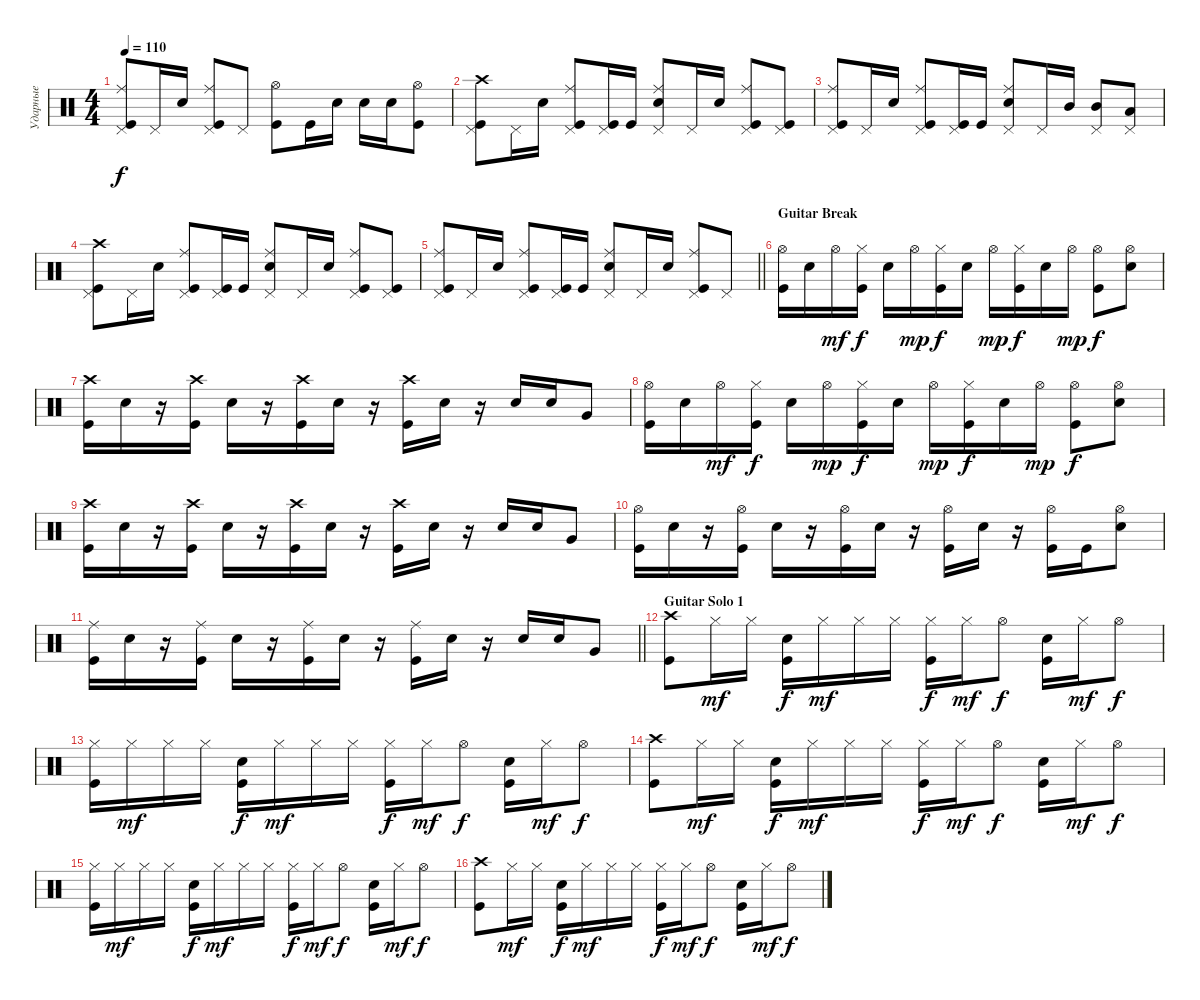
\track ("Ударные" "Ударные") {instrument percussion}
\staff {score}
\articulation defaults
\ts (4 4)
\tempo 110
\clef neutral
\ks c
("Kick (hit)" "Ride (middle)" "Pedal Hi-Hat (hit)").8{dy f} "Pedal Hi-Hat (hit)".16 "Snare (hit) 2".16 ("Kick (hit)" "Ride (middle)" "Pedal Hi-Hat (hit)").8 "Pedal Hi-Hat (hit)".8 ("Kick (hit)" "Hi-Hat (open)").8 "Kick (hit)".16 "Snare (hit) 2".16 "Snare (hit) 2".16 "Snare (hit) 2".16 ("Kick (hit)" "Hi-Hat (open)").8 |
("Kick (hit)" "Crash high (hit)" "Pedal Hi-Hat (hit)").8 "Pedal Hi-Hat (hit)".16 "Snare (hit) 2".16 ("Kick (hit)" "Ride (middle)" "Pedal Hi-Hat (hit)").8 ("Pedal Hi-Hat (hit)" "Kick (hit)").16 "Kick (hit)".16 ("Snare (hit) 2" "Ride (middle)" "Pedal Hi-Hat (hit)").8 "Pedal Hi-Hat (hit)".16 "Snare (hit) 2".16 ("Kick (hit)" "Ride (middle)" "Pedal Hi-Hat (hit)").8 ("Kick (hit)" "Pedal Hi-Hat (hit)").8 |
("Kick (hit)" "Ride (middle)" "Pedal Hi-Hat (hit)").8 "Pedal Hi-Hat (hit)".16 "Snare (hit) 2".16 ("Kick (hit)" "Ride (middle)" "Pedal Hi-Hat (hit)").8 ("Pedal Hi-Hat (hit)" "Kick (hit)").16 "Kick (hit)".16 ("Snare (hit) 2" "Pedal Hi-Hat (hit)" "Ride (middle)").8 "Pedal Hi-Hat (hit)".16 "Mid Tom (hit)".16 ("Pedal Hi-Hat (hit)" "Mid Tom (hit)").8 ("Pedal Hi-Hat (hit)" "Low Tom (hit)").8 |
("Kick (hit)" "Crash high (hit)" "Pedal Hi-Hat (hit)").8 "Pedal Hi-Hat (hit)".16 "Snare (hit) 2".16 ("Kick (hit)" "Ride (middle)" "Pedal Hi-Hat (hit)").8 ("Pedal Hi-Hat (hit)" "Kick (hit)").16 "Kick (hit)".16 ("Snare (hit) 2" "Ride (middle)" "Pedal Hi-Hat (hit)").8 "Pedal Hi-Hat (hit)".16 "Snare (hit) 2".16 ("Kick (hit)" "Ride (middle)" "Pedal Hi-Hat (hit)").8 ("Kick (hit)" "Pedal Hi-Hat (hit)").8 |
\barLineRight lightlight
("Kick (hit)" "Ride (middle)" "Pedal Hi-Hat (hit)").8 "Pedal Hi-Hat (hit)".16 "Snare (hit) 2".16 ("Kick (hit)" "Ride (middle)" "Pedal Hi-Hat (hit)").8 ("Pedal Hi-Hat (hit)" "Kick (hit)").16 "Kick (hit)".16 ("Snare (hit) 2" "Ride (middle)" "Pedal Hi-Hat (hit)").8 "Pedal Hi-Hat (hit)".16 "Snare (hit) 2".16 ("Kick (hit)" "Ride (middle)" "Pedal Hi-Hat (hit)").8 "Pedal Hi-Hat (hit)".8 |
\section ("" "Guitar Break")
\ks aminor
("Kick (hit)" "Hi-Hat (open)").16 "Snare (hit) 2".16 "Hi-Hat (open)".16{dy mf} ("Kick (hit)" "Hi-Hat (closed)").16{dy f} "Snare (hit) 2".16 "Hi-Hat (open)".16{dy mp} ("Kick (hit)" "Hi-Hat (closed)").16{dy f} "Snare (hit) 2".16 "Hi-Hat (open)".16{dy mp} ("Kick (hit)" "Hi-Hat (closed)").16{dy f} "Snare (hit) 2".16 "Hi-Hat (open)".16{dy mp} ("Kick (hit)" "Hi-Hat (open)").8{dy f} ("Snare (hit) 2" "Hi-Hat (open)").8 |
("Kick (hit)" "Crash high (hit)").16 "Snare (hit) 2".16 r.16 ("Kick (hit)" "Crash high (hit)").16 "Snare (hit) 2".16 r.16 ("Kick (hit)" "Crash high (hit)").16 "Snare (hit) 2".16 r.16 ("Kick (hit)" "Crash high (hit)").16 "Snare (hit) 2".16 r.16 "Snare (hit) 2".16 "Snare (hit) 2".16 "Very Low Tom (hit)".8 |
("Kick (hit)" "Hi-Hat (open)").16 "Snare (hit) 2".16 "Hi-Hat (open)".16{dy mf} ("Kick (hit)" "Hi-Hat (closed)").16{dy f} "Snare (hit) 2".16 "Hi-Hat (open)".16{dy mp} ("Kick (hit)" "Hi-Hat (closed)").16{dy f} "Snare (hit) 2".16 "Hi-Hat (open)".16{dy mp} ("Kick (hit)" "Hi-Hat (closed)").16{dy f} "Snare (hit) 2".16 "Hi-Hat (open)".16{dy mp} ("Kick (hit)" "Hi-Hat (open)").8{dy f} ("Snare (hit) 2" "Hi-Hat (open)").8 |
("Kick (hit)" "Crash high (hit)").16 "Snare (hit) 2".16 r.16 ("Kick (hit)" "Crash high (hit)").16 "Snare (hit) 2".16 r.16 ("Kick (hit)" "Crash high (hit)").16 "Snare (hit) 2".16 r.16 ("Kick (hit)" "Crash high (hit)").16 "Snare (hit) 2".16 r.16 "Snare (hit) 2".16 "Snare (hit) 2".16 "Very Low Tom (hit)".8 |
\ks c
("Kick (hit)" "Hi-Hat (open)").16 "Snare (hit) 2".16 r.16 ("Kick (hit)" "Hi-Hat (open)").16 "Snare (hit) 2".16 r.16 ("Kick (hit)" "Hi-Hat (open)").16 "Snare (hit) 2".16 r.16 ("Kick (hit)" "Hi-Hat (open)").16 "Snare (hit) 2".16 r.16 ("Kick (hit)" "Hi-Hat (open)").16 "Kick (hit)".16 ("Snare (hit) 2" "Hi-Hat (open)").8 |
\barLineRight lightlight
("Kick (hit)" "Ride (middle)").16 "Snare (hit) 2".16 r.16 ("Kick (hit)" "Ride (middle)").16 "Snare (hit) 2".16 r.16 ("Kick (hit)" "Ride (middle)").16 "Snare (hit) 2".16 r.16 ("Kick (hit)" "Ride (middle)").16 "Snare (hit) 2".16 r.16 "Snare (hit) 2".16 "Snare (hit) 2".16 "Very Low Tom (hit)".8 |
\section ("" "Guitar Solo 1")
("Crash high (hit)" "Kick (hit)").8 "Hi-Hat (closed)".16{dy mf} "Hi-Hat (closed)".16 ("Snare (hit) 2" "Kick (hit)").16{dy f} "Hi-Hat (closed)".16{dy mf} "Hi-Hat (closed)".16 "Hi-Hat (closed)".16 ("Hi-Hat (closed)" "Kick (hit)").16{dy f} "Hi-Hat (closed)".16{dy mf} "Hi-Hat (open)".8{dy f} ("Kick (hit)" "Snare (hit) 2").16 "Hi-Hat (closed)".16{dy mf} "Hi-Hat (open)".8{dy f} |
("Hi-Hat (closed)" "Kick (hit)").16 "Hi-Hat (closed)".16{dy mf} "Hi-Hat (closed)".16 "Hi-Hat (closed)".16 ("Snare (hit) 2" "Kick (hit)").16{dy f} "Hi-Hat (closed)".16{dy mf} "Hi-Hat (closed)".16 "Hi-Hat (closed)".16 ("Hi-Hat (closed)" "Kick (hit)").16{dy f} "Hi-Hat (closed)".16{dy mf} "Hi-Hat (open)".8{dy f} ("Kick (hit)" "Snare (hit) 2").16 "Hi-Hat (closed)".16{dy mf} "Hi-Hat (open)".8{dy f} |
("Crash high (hit)" "Kick (hit)").8 "Hi-Hat (closed)".16{dy mf} "Hi-Hat (closed)".16 ("Snare (hit) 2" "Kick (hit)").16{dy f} "Hi-Hat (closed)".16{dy mf} "Hi-Hat (closed)".16 "Hi-Hat (closed)".16 ("Hi-Hat (closed)" "Kick (hit)").16{dy f} "Hi-Hat (closed)".16{dy mf} "Hi-Hat (open)".8{dy f} ("Kick (hit)" "Snare (hit) 2").16 "Hi-Hat (closed)".16{dy mf} "Hi-Hat (open)".8{dy f} |
("Hi-Hat (closed)" "Kick (hit)").16 "Hi-Hat (closed)".16{dy mf} "Hi-Hat (closed)".16 "Hi-Hat (closed)".16 ("Snare (hit) 2" "Kick (hit)").16{dy f} "Hi-Hat (closed)".16{dy mf} "Hi-Hat (closed)".16 "Hi-Hat (closed)".16 ("Hi-Hat (closed)" "Kick (hit)").16{dy f} "Hi-Hat (closed)".16{dy mf} "Hi-Hat (open)".8{dy f} ("Kick (hit)" "Snare (hit) 2").16 "Hi-Hat (closed)".16{dy mf} "Hi-Hat (open)".8{dy f} |
("Crash high (hit)" "Kick (hit)").8 "Hi-Hat (closed)".16{dy mf} "Hi-Hat (closed)".16 ("Snare (hit) 2" "Kick (hit)").16{dy f} "Hi-Hat (closed)".16{dy mf} "Hi-Hat (closed)".16 "Hi-Hat (closed)".16 ("Hi-Hat (closed)" "Kick (hit)").16{dy f} "Hi-Hat (closed)".16{dy mf} "Hi-Hat (open)".8{dy f} ("Kick (hit)" "Snare (hit) 2").16 "Hi-Hat (closed)".16{dy mf} "Hi-Hat (open)".8{dy f}
